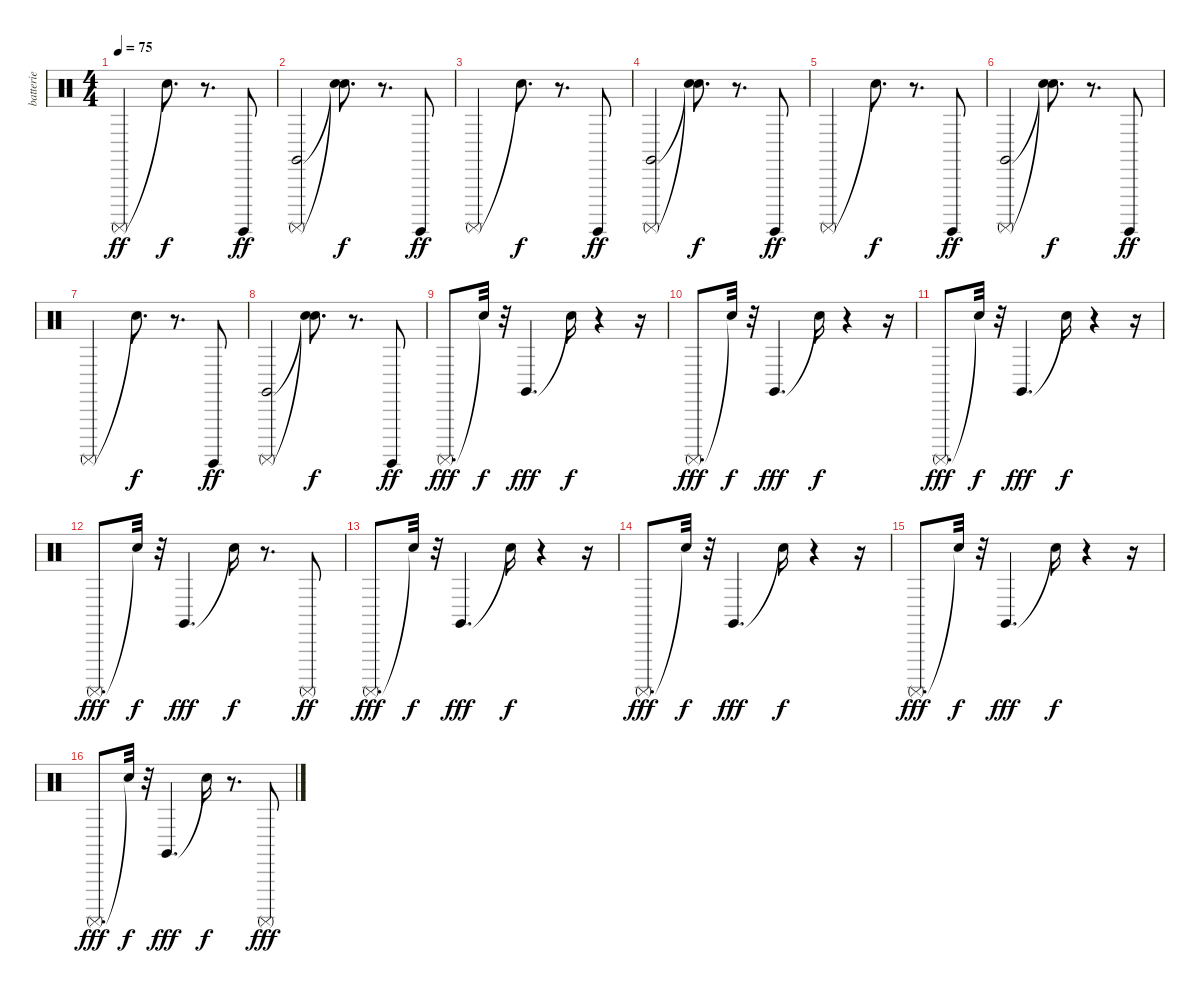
\track ("batterie" "batterie") {instrument percussion}
\staff {score}
\articulation defaults
\ts (4 4)
\tempo 75
\clef neutral
\ks c "Surdo (mute)".2{dy ff} "Snare (hit)"{t}.8{d dy f}
r.8{d} "Surdo (hit)".8{dy ff} |
("Claves (hit)" "Surdo (mute)").2 ("Snare (hit)"{t} "Snare (hit)"{t}).8{d dy f} r.8{d} "Surdo (hit)".8{dy ff} |
"Surdo (mute)".2 "Snare (hit)"{t}.8{d dy f} r.8{d} "Surdo (hit)".8{dy ff} |
("Claves (hit)" "Surdo (mute)").2 ("Snare (hit)"{t} "Snare (hit)"{t}).8{d dy f} r.8{d} "Surdo (hit)".8{dy ff} |
"Surdo (mute)".2 "Snare (hit)"{t}.8{d dy f} r.8{d} "Surdo (hit)".8{dy ff} |
("Claves (hit)" "Surdo (mute)").2 ("Snare (hit)"{t} "Snare (hit)"{t}).8{d dy f} r.8{d} "Surdo (hit)".8{dy ff} |
"Surdo (mute)".2 "Snare (hit)"{t}.8{d dy f} r.8{d} "Surdo (hit)".8{dy ff} |
("Claves (hit)" "Surdo (mute)").2 ("Snare (hit)"{t} "Snare (hit)"{t}).8{d dy f} r.8{d} "Surdo (hit)".8{dy ff} |
"Surdo (mute)".8{d dy fff} "Snare (hit)"{t}.32{dy f} r.32 "Claves (hit)".4{d dy fff} "Snare (hit)"{t}.16{dy f} r.4 r.16 |
"Surdo (mute)".8{d dy fff} "Snare (hit)"{t}.32{dy f} r.32 "Claves (hit)".4{d dy fff} "Snare (hit)"{t}.16{dy f} r.4 r.16 |
"Surdo (mute)".8{d dy fff} "Snare (hit)"{t}.32{dy f} r.32 "Claves (hit)".4{d dy fff} "Snare (hit)"{t}.16{dy f} r.4 r.16 |
"Surdo (mute)".8{d dy fff} "Snare (hit)"{t}.32{dy f} r.32 "Claves (hit)".4{d dy fff} "Snare (hit)"{t}.16{dy f} r.8{d} "Surdo (mute)".8{dy ff} |
"Surdo (mute)".8{d dy fff} "Snare (hit)"{t}.32{dy f} r.32 "Claves (hit)".4{d dy fff} "Snare (hit)"{t}.16{dy f} r.4 r.16 |
"Surdo (mute)".8{d dy fff} "Snare (hit)"{t}.32{dy f} r.32 "Claves (hit)".4{d dy fff} "Snare (hit)"{t}.16{dy f} r.4 r.16 |
"Surdo (mute)".8{d dy fff} "Snare (hit)"{t}.32{dy f} r.32 "Claves (hit)".4{d dy fff} "Snare (hit)"{t}.16{dy f} r.4 r.16 |
"Surdo (mute)".8{d dy fff} "Snare (hit)"{t}.32{dy f} r.32 "Claves (hit)".4{d dy fff} "Snare (hit)"{t}.16{dy f} r.8{d} "Surdo (mute)".8{dy fff}
